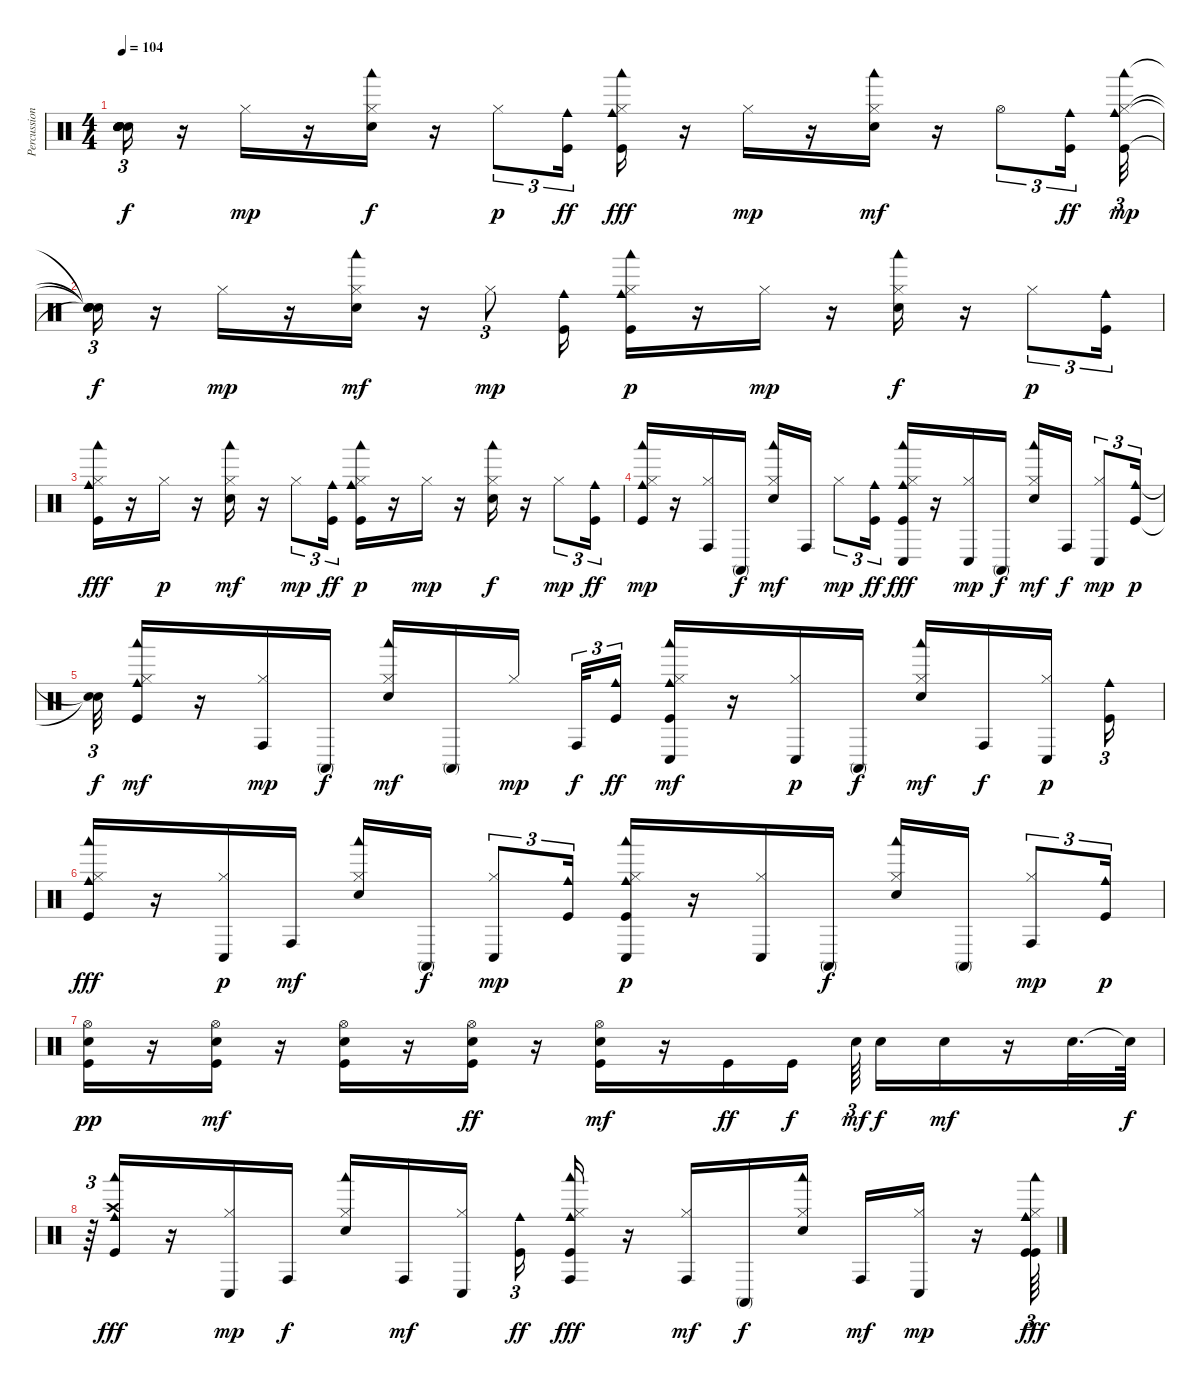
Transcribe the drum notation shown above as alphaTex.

\track ("Percussions (drums + hihats)" "Percussion") {instrument percussion}
\staff {score}
\articulation defaults
\ts (4 4)
\tempo 104
\clef neutral
\ks c
("Snare (hit)"{t} "Snare (hit)"{t} "Snare (hit)"{t} "Snare (hit)"{t} "Snare (hit)"{t} "Snare (hit)"{t}).16{tu (3 2) dy f} r.16 "Hi-Hat (closed)".16{dy mp} r.16 ("Woodblock low (hit)" "Electric Snare (hit)" "Hi-Hat (closed)").16{dy f} r.16 "Hi-Hat (closed)".8{tu (3 2) dy p} ("Cowbell medium (hit)" "Kick (hit)").16{tu (3 2) dy ff} ("Hi-Hat (closed)" "Woodblock low (hit)" "Cowbell medium (hit)" "Kick (hit)").16{dy fff} r.16 "Hi-Hat (closed)".16{dy mp} r.16 ("Hi-Hat (closed)" "Woodblock low (hit)" "Electric Snare (hit)").16{dy mf} r.16 "Hi-Hat (open)".8{tu (3 2)} ("Cowbell medium (hit)" "Kick (hit)").16{tu (3 2) dy ff} ("Kick (hit)" "Hi-Hat (closed)" "Woodblock low (hit)" "Cowbell medium (hit)").32{tu (3 2) dy mp} |
("Snare (hit)"{t} "Snare (hit)"{t} "Snare (hit)"{t} "Snare (hit)"{t}).16{tu (3 2) dy f} r.16 "Hi-Hat (closed)".16{dy mp} r.16 ("Woodblock low (hit)" "Electric Snare (hit)" "Hi-Hat (closed)").16{dy mf} r.16 "Hi-Hat (closed)".8{tu (3 2) dy mp} ("Kick (hit)" "Cowbell medium (hit)").16 ("Kick (hit)" "Woodblock low (hit)" "Hi-Hat (closed)" "Cowbell medium (hit)").16{dy p} r.16 "Hi-Hat (closed)".16{dy mp} r.16 ("Hi-Hat (closed)" "Electric Snare (hit)" "Woodblock low (hit)").16{dy f} r.16 "Hi-Hat (closed)".8{tu (3 2) dy p} ("Kick (hit)" "Cowbell medium (hit)").16{tu (3 2)} |
("Cowbell medium (hit)" "Woodblock low (hit)" "Hi-Hat (closed)" "Kick (hit)").16{dy fff} r.16 "Hi-Hat (closed)".16{dy p} r.16 ("Hi-Hat (closed)" "Woodblock low (hit)" "Electric Snare (hit)").16{dy mf} r.16 "Hi-Hat (closed)".8{tu (3 2) dy mp} ("Cowbell medium (hit)" "Kick (hit)").16{tu (3 2) dy ff} ("Woodblock low (hit)" "Hi-Hat (closed)" "Kick (hit)" "Cowbell medium (hit)").16{dy p} r.16 "Hi-Hat (closed)".16{dy mp} r.16 ("Electric Snare (hit)" "Hi-Hat (closed)" "Woodblock low (hit)").16{dy f} r.16 "Hi-Hat (closed)".8{tu (3 2) dy mp} ("Cowbell medium (hit)" "Kick (hit)").16{tu (3 2) dy ff} |
("Hi-Hat (closed)" "Kick (hit)" "Cowbell medium (hit)" "Woodblock low (hit)").16{dy mp} r.16 ("Hi-Hat (closed)" "Conga high (hit)").16 "Conga high (mute)".16{dy f} ("Electric Snare (hit)" "Woodblock low (hit)" "Hi-Hat (closed)").16{dy mf} "Conga high (hit)".16 "Hi-Hat (closed)".8{tu (3 2) dy mp} ("Cowbell medium (hit)" "Kick (hit)").16{tu (3 2) dy ff} ("Conga low (hit)" "Cowbell medium (hit)" "Hi-Hat (closed)" "Kick (hit)" "Woodblock low (hit)").16{dy fff} r.16 ("Hi-Hat (closed)" "Conga low (hit)").16{dy mp} "Conga high (mute)".16{dy f} ("Woodblock low (hit)" "Hi-Hat (closed)" "Electric Snare (hit)").16{dy mf} "Conga high (hit)".16{dy f} ("Conga low (hit)" "Hi-Hat (closed)").8{tu (3 2) dy mp} ("Kick (hit)" "Cowbell medium (hit)").16{tu (3 2) dy p} |
("Snare (hit)"{t} "Snare (hit)"{t}).32{tu (3 2) dy f} ("Kick (hit)" "Cowbell medium (hit)" "Woodblock low (hit)" "Hi-Hat (closed)").16{dy mf} r.16 ("Hi-Hat (closed)" "Conga high (hit)").16{dy mp} "Conga high (mute)".16{dy f} ("Electric Snare (hit)" "Woodblock low (hit)" "Hi-Hat (closed)").16{dy mf} "Conga high (mute)".16 "Hi-Hat (closed)".16{dy mp} "Conga high (hit)".32{tu (3 2) dy f} ("Cowbell medium (hit)" "Kick (hit)").16{tu (3 2) dy ff} ("Kick (hit)" "Conga low (hit)" "Woodblock low (hit)" "Cowbell medium (hit)" "Hi-Hat (closed)").16{dy mf} r.16 ("Conga low (hit)" "Hi-Hat (closed)").16{dy p} "Conga high (mute)".16{dy f} ("Electric Snare (hit)" "Hi-Hat (closed)" "Woodblock low (hit)").16{dy mf} "Conga high (hit)".16{dy f} ("Hi-Hat (closed)" "Conga low (hit)").16{dy p} ("Kick (hit)" "Cowbell medium (hit)").16{tu (3 2)} |
("Hi-Hat (closed)" "Cowbell medium (hit)" "Kick (hit)" "Woodblock low (hit)").16{dy fff} r.16 ("Hi-Hat (closed)" "Conga low (hit)").16{dy p} "Conga high (hit)".16{dy mf} ("Woodblock low (hit)" "Hi-Hat (closed)" "Electric Snare (hit)").16 "Conga high (mute)".16{dy f} ("Hi-Hat (closed)" "Conga low (hit)").8{tu (3 2) dy mp} ("Kick (hit)" "Cowbell medium (hit)").16{tu (3 2)} ("Conga low (hit)" "Hi-Hat (closed)" "Kick (hit)" "Woodblock low (hit)" "Cowbell medium (hit)").16{dy p} r.16 ("Conga low (hit)" "Hi-Hat (closed)").16 "Conga high (mute)".16{dy f} ("Woodblock low (hit)" "Hi-Hat (closed)" "Electric Snare (hit)").16 "Conga high (mute)".16 ("Hi-Hat (closed)" "Conga high (hit)").8{tu (3 2) dy mp} ("Kick (hit)" "Cowbell medium (hit)").16{tu (3 2) dy p} |
("Kick (hit)" "Electric Snare (hit)" "Hi-Hat (open)").16{dy pp} r.16 ("Hi-Hat (open)" "Electric Snare (hit)" "Kick (hit)").16{dy mf} r.16 ("Hi-Hat (open)" "Electric Snare (hit)" "Kick (hit)").16 r.16 ("Electric Snare (hit)" "Hi-Hat (open)" "Kick (hit)").16{dy ff} r.16 ("Electric Snare (hit)" "Kick (hit)" "Hi-Hat (open)").16{dy mf} r.16 "Kick (hit)".16{dy ff} "Kick (hit)".16{dy f} "Electric Snare (hit)".64{tu (3 2) dy mf} "Electric Snare (hit)".16{dy f} "Electric Snare (hit)".16{dy mf} r.16 "Electric Snare (hit)".32{d} "Snare (hit)"{t}.64{dy f} |
r.64{tu (3 2)} ("Cowbell medium (hit)" "Woodblock low (hit)" "Crash high (hit)" "Kick (hit)").16{dy fff} r.16 ("Conga low (hit)" "Hi-Hat (closed)").16{dy mp} "Conga high (hit)".16{dy f} ("Electric Snare (hit)" "Hi-Hat (closed)" "Woodblock low (hit)").16 "Conga high (hit)".16{dy mf} ("Hi-Hat (closed)" "Conga low (hit)").16 ("Cowbell medium (hit)" "Kick (hit)").16{tu (3 2) dy ff} ("Conga high (hit)" "Cowbell medium (hit)" "Woodblock low (hit)" "Hi-Hat (closed)" "Kick (hit)").16{dy fff} r.16 ("Conga high (hit)" "Hi-Hat (closed)").16{dy mf} "Conga high (mute)".16{dy f} ("Hi-Hat (closed)" "Woodblock low (hit)" "Electric Snare (hit)").16 "Conga high (hit)".16{dy mf} ("Hi-Hat (closed)" "Conga low (hit)").16{dy mp} r.16 ("Kick (hit)" "Cowbell medium (hit)" "Woodblock low (hit)" "Hi-Hat (closed)" "Cowbell medium (hit)" "Kick (hit)").64{tu (3 2) dy fff}
